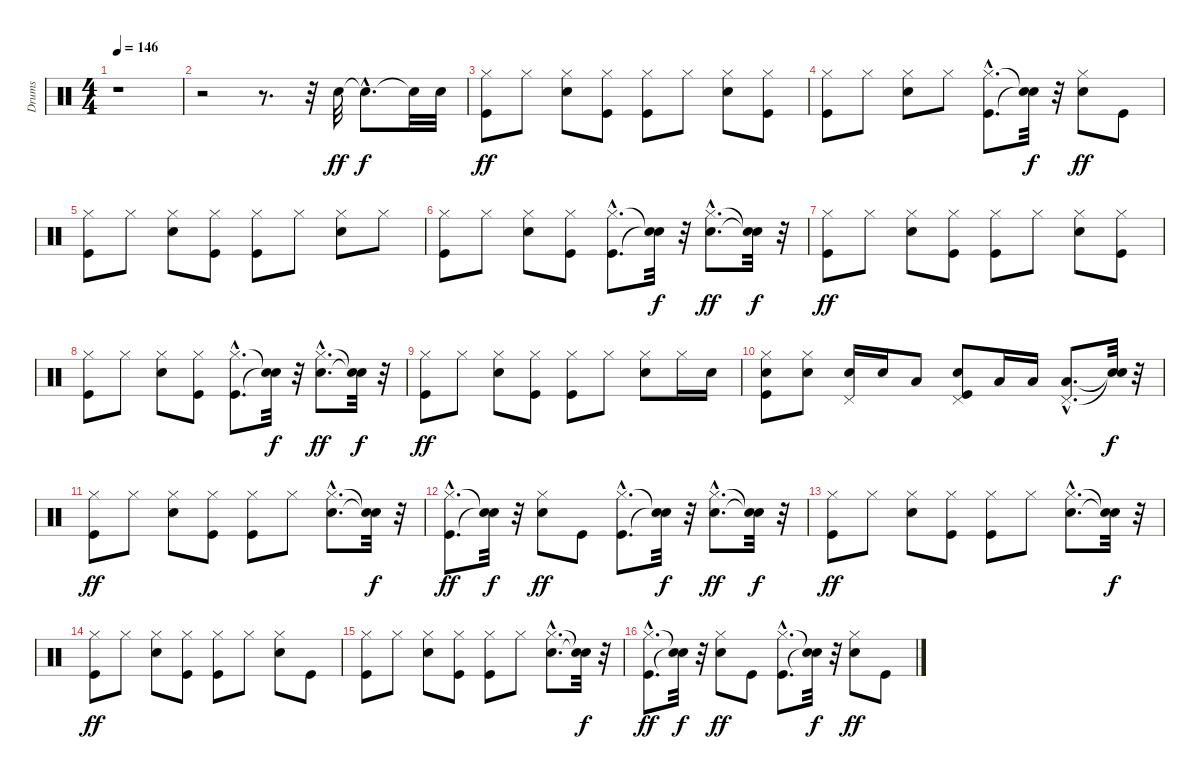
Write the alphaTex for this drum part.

\track ("Drums" "Drums") {instrument percussion}
\staff {score}
\articulation defaults
\ts (4 4)
\tempo 146
\clef neutral
\ks c
r.1{dy ff} |
r.2 r.8{d} r.32 "Snare (hit) 2".32 "Snare (hit)"{hac t}.8{d dy f} "Snare (hit) 2"{t}.32 "Snare (hit) 2".32 |
("Kick (hit)" "Hi-Hat (closed)").8{dy ff} "Hi-Hat (closed)".8 ("Snare (hit) 2" "Hi-Hat (closed)").8 ("Kick (hit)" "Hi-Hat (closed)").8 ("Kick (hit)" "Hi-Hat (closed)").8 "Hi-Hat (closed)".8 ("Snare (hit) 2" "Hi-Hat (closed)").8 ("Kick (hit)" "Hi-Hat (closed)").8 |
("Kick (hit)" "Hi-Hat (closed)").8 "Hi-Hat (closed)".8 ("Snare (hit) 2" "Hi-Hat (closed)").8 "Hi-Hat (closed)".8 ("Kick (hit)"{hac} "Hi-Hat (closed)"{hac}).8{d} ("Snare (hit)"{t} "Snare (hit)"{t}).32{dy f} r.32 ("Snare (hit) 2" "Hi-Hat (closed)").8{dy ff} "Kick (hit)".8 |
("Kick (hit)" "Hi-Hat (closed)").8 "Hi-Hat (closed)".8 ("Snare (hit) 2" "Hi-Hat (closed)").8 ("Kick (hit)" "Hi-Hat (closed)").8 ("Kick (hit)" "Hi-Hat (closed)").8 "Hi-Hat (closed)".8 ("Snare (hit) 2" "Hi-Hat (closed)").8 "Hi-Hat (closed)".8 |
("Kick (hit)" "Hi-Hat (closed)").8 "Hi-Hat (closed)".8 ("Snare (hit) 2" "Hi-Hat (closed)").8 ("Kick (hit)" "Hi-Hat (closed)").8 ("Kick (hit)"{hac} "Hi-Hat (closed)"{hac}).8{d} ("Snare (hit)"{t} "Snare (hit)"{t}).32{dy f} r.32 ("Snare (hit) 2"{hac} "Hi-Hat (closed)"{hac}).8{d dy ff} ("Snare (hit)"{t} "Snare (hit)"{t}).32{dy f} r.32 |
("Kick (hit)" "Hi-Hat (closed)").8{dy ff} "Hi-Hat (closed)".8 ("Snare (hit) 2" "Hi-Hat (closed)").8 ("Kick (hit)" "Hi-Hat (closed)").8 ("Kick (hit)" "Hi-Hat (closed)").8 "Hi-Hat (closed)".8 ("Snare (hit) 2" "Hi-Hat (closed)").8 ("Kick (hit)" "Hi-Hat (closed)").8 |
("Kick (hit)" "Hi-Hat (closed)").8 "Hi-Hat (closed)".8 ("Snare (hit) 2" "Hi-Hat (closed)").8 ("Kick (hit)" "Hi-Hat (closed)").8 ("Kick (hit)"{hac} "Hi-Hat (closed)"{hac}).8{d} ("Snare (hit)"{t} "Snare (hit)"{t}).32{dy f} r.32 ("Snare (hit) 2"{hac} "Hi-Hat (closed)"{hac}).8{d dy ff} ("Snare (hit)"{t} "Snare (hit)"{t}).32{dy f} r.32 |
("Kick (hit)" "Hi-Hat (closed)").8{dy ff} "Hi-Hat (closed)".8 ("Snare (hit) 2" "Hi-Hat (closed)").8 ("Kick (hit)" "Hi-Hat (closed)").8 ("Kick (hit)" "Hi-Hat (closed)").8 "Hi-Hat (closed)".8 ("Snare (hit) 2" "Hi-Hat (closed)").8 "Hi-Hat (closed)".16 "Snare (hit) 2".16 |
("Kick (hit)" "Snare (hit) 2" "Hi-Hat (closed)").8 ("Snare (hit) 2" "Hi-Hat (closed)").8 ("Snare (hit) 2" "Pedal Hi-Hat (hit)").16 "Snare (hit) 2".16 "Low Floor Tom (hit)".8 ("Kick (hit)" "Snare (hit) 2" "Pedal Hi-Hat (hit)").8 "Low Tom (hit)".16 "Low Tom (hit)".16 ("Low Floor Tom (hit)"{hac} "Pedal Hi-Hat (hit)"{hac}).8{d} ("Snare (hit)"{t} "Snare (hit)"{t}).32{dy f} r.32 |
("Kick (hit)" "Hi-Hat (closed)").8{dy ff} "Hi-Hat (closed)".8 ("Snare (hit) 2" "Hi-Hat (closed)").8 ("Kick (hit)" "Hi-Hat (closed)").8 ("Kick (hit)" "Hi-Hat (closed)").8 "Hi-Hat (closed)".8 ("Snare (hit) 2"{hac} "Hi-Hat (closed)"{hac}).8{d} ("Snare (hit)"{t} "Snare (hit)"{t}).32{dy f} r.32 |
("Kick (hit)"{hac} "Hi-Hat (closed)"{hac}).8{d dy ff} ("Snare (hit)"{t} "Snare (hit)"{t}).32{dy f} r.32 ("Snare (hit) 2" "Hi-Hat (closed)").8{dy ff} "Kick (hit)".8 ("Kick (hit)"{hac} "Hi-Hat (closed)"{hac}).8{d} ("Snare (hit)"{t} "Snare (hit)"{t}).32{dy f} r.32 ("Snare (hit) 2"{hac} "Hi-Hat (closed)"{hac}).8{d dy ff} ("Snare (hit)"{t} "Snare (hit)"{t}).32{dy f} r.32 |
("Kick (hit)" "Hi-Hat (closed)").8{dy ff} "Hi-Hat (closed)".8 ("Snare (hit) 2" "Hi-Hat (closed)").8 ("Kick (hit)" "Hi-Hat (closed)").8 ("Kick (hit)" "Hi-Hat (closed)").8 "Hi-Hat (closed)".8 ("Snare (hit) 2"{hac} "Hi-Hat (closed)"{hac}).8{d} ("Snare (hit)"{t} "Snare (hit)"{t}).32{dy f} r.32 |
("Kick (hit)" "Hi-Hat (closed)").8{dy ff} "Hi-Hat (closed)".8 ("Snare (hit) 2" "Hi-Hat (closed)").8 ("Kick (hit)" "Hi-Hat (closed)").8 ("Kick (hit)" "Hi-Hat (closed)").8 "Hi-Hat (closed)".8 ("Snare (hit) 2" "Hi-Hat (closed)").8 "Kick (hit)".8 |
("Kick (hit)" "Hi-Hat (closed)").8 "Hi-Hat (closed)".8 ("Snare (hit) 2" "Hi-Hat (closed)").8 ("Kick (hit)" "Hi-Hat (closed)").8 ("Kick (hit)" "Hi-Hat (closed)").8 "Hi-Hat (closed)".8 ("Snare (hit) 2"{hac} "Hi-Hat (closed)"{hac}).8{d} ("Snare (hit)"{t} "Snare (hit)"{t}).32{dy f} r.32 |
("Kick (hit)"{hac} "Hi-Hat (closed)"{hac}).8{d dy ff} ("Snare (hit)"{t} "Snare (hit)"{t}).32{dy f} r.32 ("Snare (hit) 2" "Hi-Hat (closed)").8{dy ff} "Kick (hit)".8 ("Kick (hit)"{hac} "Hi-Hat (closed)"{hac}).8{d} ("Snare (hit)"{t} "Snare (hit)"{t}).32{dy f} r.32 ("Snare (hit) 2" "Hi-Hat (closed)").8{dy ff} "Kick (hit)".8
